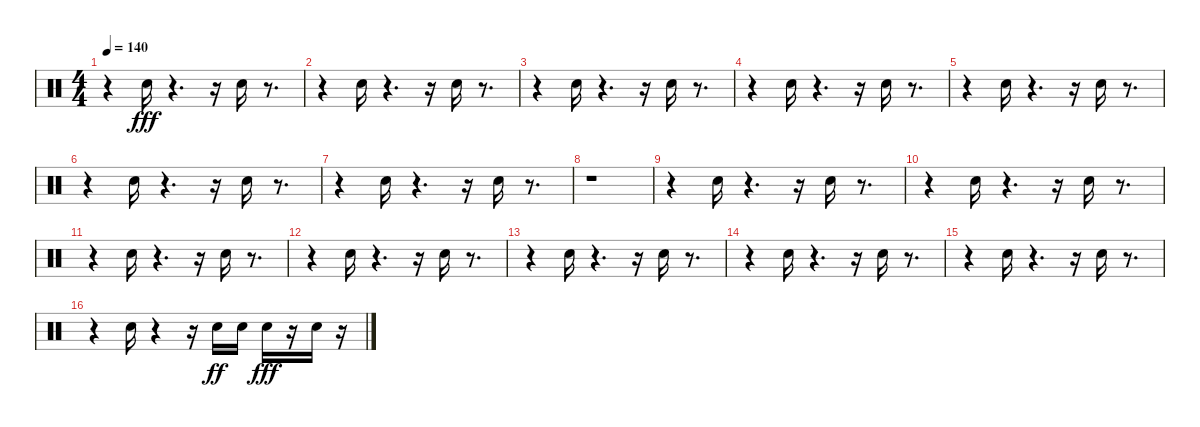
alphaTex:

\track "" {instrument percussion}
\staff {score}
\articulation defaults
\ts (4 4)
\tempo 140
\clef neutral
\ks c
r.4{dy fff} "Snare (hit) 2".16 r.4{d} r.16 "Snare (hit) 2".16 r.8{d} |
r.4 "Snare (hit) 2".16 r.4{d} r.16 "Snare (hit) 2".16 r.8{d} |
r.4 "Snare (hit) 2".16 r.4{d} r.16 "Snare (hit) 2".16 r.8{d} |
r.4 "Snare (hit) 2".16 r.4{d} r.16 "Snare (hit) 2".16 r.8{d} |
r.4 "Snare (hit) 2".16 r.4{d} r.16 "Snare (hit) 2".16 r.8{d} |
r.4 "Snare (hit) 2".16 r.4{d} r.16 "Snare (hit) 2".16 r.8{d} |
r.4 "Snare (hit) 2".16 r.4{d} r.16 "Snare (hit) 2".16 r.8{d} |
r.1 |
r.4 "Snare (hit) 2".16 r.4{d} r.16 "Snare (hit) 2".16 r.8{d} |
r.4 "Snare (hit) 2".16 r.4{d} r.16 "Snare (hit) 2".16 r.8{d} |
r.4 "Snare (hit) 2".16 r.4{d} r.16 "Snare (hit) 2".16 r.8{d} |
r.4 "Snare (hit) 2".16 r.4{d} r.16 "Snare (hit) 2".16 r.8{d} |
r.4 "Snare (hit) 2".16 r.4{d} r.16 "Snare (hit) 2".16 r.8{d} |
r.4 "Snare (hit) 2".16 r.4{d} r.16 "Snare (hit) 2".16 r.8{d} |
r.4 "Snare (hit) 2".16 r.4{d} r.16 "Snare (hit) 2".16 r.8{d} |
r.4 "Snare (hit) 2".16 r.4 r.16 "Snare (hit) 2".16{dy ff} "Snare (hit) 2".16 "Snare (hit) 2".16{dy fff} r.16 "Snare (hit) 2".16 r.16
